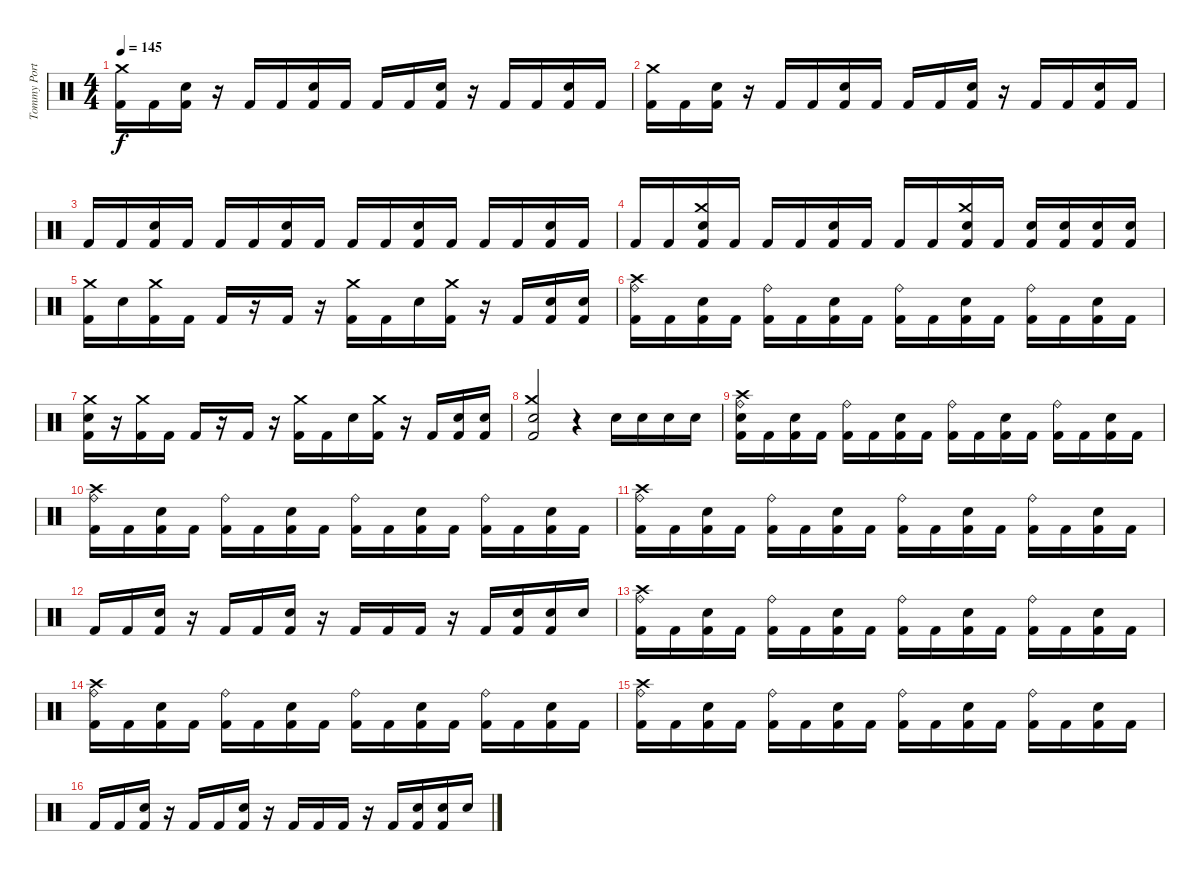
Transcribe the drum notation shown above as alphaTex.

\track ("Tommy Portino" "Tommy Port") {instrument percussion}
\staff {score}
\articulation defaults
\ts (4 4)
\tempo 145
\clef neutral
\ks c
("Kick (hit) 2" "Crash medium (hit)").16{dy f} "Kick (hit) 2".16 ("Kick (hit) 2" "Electric Snare (hit)").16 r.16 "Kick (hit) 2".16 "Kick (hit) 2".16 ("Kick (hit) 2" "Electric Snare (hit)").16 "Kick (hit) 2".16 "Kick (hit) 2".16 "Kick (hit) 2".16 ("Kick (hit) 2" "Electric Snare (hit)").16 r.16 "Kick (hit) 2".16 "Kick (hit) 2".16 ("Kick (hit) 2" "Electric Snare (hit)").16 "Kick (hit) 2".16 |
("Kick (hit) 2" "Crash medium (hit)").16 "Kick (hit) 2".16 ("Kick (hit) 2" "Electric Snare (hit)").16 r.16 "Kick (hit) 2".16 "Kick (hit) 2".16 ("Kick (hit) 2" "Electric Snare (hit)").16 "Kick (hit) 2".16 "Kick (hit) 2".16 "Kick (hit) 2".16 ("Kick (hit) 2" "Electric Snare (hit)").16 r.16 "Kick (hit) 2".16 "Kick (hit) 2".16 ("Kick (hit) 2" "Electric Snare (hit)").16 "Kick (hit) 2".16 |
"Kick (hit) 2".16 "Kick (hit) 2".16 ("Kick (hit) 2" "Electric Snare (hit)").16 "Kick (hit) 2".16 "Kick (hit) 2".16 "Kick (hit) 2".16 ("Kick (hit) 2" "Electric Snare (hit)").16 "Kick (hit) 2".16 "Kick (hit) 2".16 "Kick (hit) 2".16 ("Kick (hit) 2" "Electric Snare (hit)").16 "Kick (hit) 2".16 "Kick (hit) 2".16 "Kick (hit) 2".16 ("Kick (hit) 2" "Electric Snare (hit)").16 "Kick (hit) 2".16 |
"Kick (hit) 2".16 "Kick (hit) 2".16 ("Kick (hit) 2" "Crash medium (hit)" "Electric Snare (hit)").16 "Kick (hit) 2".16 "Kick (hit) 2".16 "Kick (hit) 2".16 ("Kick (hit) 2" "Electric Snare (hit)").16 "Kick (hit) 2".16 "Kick (hit) 2".16 "Kick (hit) 2".16 ("Kick (hit) 2" "Crash medium (hit)" "Electric Snare (hit)").16 "Kick (hit) 2".16 ("Kick (hit) 2" "Electric Snare (hit)").16 ("Kick (hit) 2" "Electric Snare (hit)").16 ("Kick (hit) 2" "Electric Snare (hit)").16 ("Kick (hit) 2" "Electric Snare (hit)").16 |
("Kick (hit) 2" "Crash medium (hit)").16 "Electric Snare (hit)".16 ("Kick (hit) 2" "Crash medium (hit)").16 "Kick (hit) 2".16 "Kick (hit) 2".16 r.16 "Kick (hit) 2".16 r.16 ("Kick (hit) 2" "Crash medium (hit)").16 "Kick (hit) 2".16 "Electric Snare (hit)".16 ("Kick (hit) 2" "Crash medium (hit)").16 r.16 "Kick (hit) 2".16 ("Kick (hit) 2" "Electric Snare (hit)").16 ("Kick (hit) 2" "Electric Snare (hit)").16 |
("Kick (hit) 2" "Ride (bell)" "Crash high (hit)").16 "Kick (hit) 2".16 ("Kick (hit) 2" "Electric Snare (hit)").16 "Kick (hit) 2".16 ("Kick (hit) 2" "Ride (bell)").16 "Kick (hit) 2".16 ("Kick (hit) 2" "Electric Snare (hit)").16 "Kick (hit) 2".16 ("Kick (hit) 2" "Ride (bell)").16 "Kick (hit) 2".16 ("Kick (hit) 2" "Electric Snare (hit)").16 "Kick (hit) 2".16 ("Kick (hit) 2" "Ride (bell)").16 "Kick (hit) 2".16 ("Kick (hit) 2" "Electric Snare (hit)").16 "Kick (hit) 2".16 |
("Kick (hit) 2" "Crash medium (hit)" "Electric Snare (hit)").16 r.16 ("Kick (hit) 2" "Crash medium (hit)").16 "Kick (hit) 2".16 "Kick (hit) 2".16 r.16 "Kick (hit) 2".16 r.16 ("Kick (hit) 2" "Crash medium (hit)").16 "Kick (hit) 2".16 "Electric Snare (hit)".16 ("Kick (hit) 2" "Crash medium (hit)").16 r.16 "Kick (hit) 2".16 ("Kick (hit) 2" "Electric Snare (hit)").16 ("Kick (hit) 2" "Electric Snare (hit)").16 |
("Electric Snare (hit)" "Crash medium (hit)" "Kick (hit) 2").2 r.4 "Electric Snare (hit)".16 "Electric Snare (hit)".16 "Electric Snare (hit)".16 "Electric Snare (hit)".16 |
("Kick (hit) 2" "Electric Snare (hit)" "Ride (bell)" "Crash high (hit)").16 "Kick (hit) 2".16 ("Kick (hit) 2" "Electric Snare (hit)").16 "Kick (hit) 2".16 ("Kick (hit) 2" "Ride (bell)").16 "Kick (hit) 2".16 ("Kick (hit) 2" "Electric Snare (hit)").16 "Kick (hit) 2".16 ("Kick (hit) 2" "Ride (bell)").16 "Kick (hit) 2".16 ("Kick (hit) 2" "Electric Snare (hit)").16 "Kick (hit) 2".16 ("Kick (hit) 2" "Ride (bell)").16 "Kick (hit) 2".16 ("Kick (hit) 2" "Electric Snare (hit)").16 "Kick (hit) 2".16 |
("Kick (hit) 2" "Ride (bell)" "Crash high (hit)").16 "Kick (hit) 2".16 ("Kick (hit) 2" "Electric Snare (hit)").16 "Kick (hit) 2".16 ("Kick (hit) 2" "Ride (bell)").16 "Kick (hit) 2".16 ("Kick (hit) 2" "Electric Snare (hit)").16 "Kick (hit) 2".16 ("Kick (hit) 2" "Ride (bell)").16 "Kick (hit) 2".16 ("Kick (hit) 2" "Electric Snare (hit)").16 "Kick (hit) 2".16 ("Kick (hit) 2" "Ride (bell)").16 "Kick (hit) 2".16 ("Kick (hit) 2" "Electric Snare (hit)").16 "Kick (hit) 2".16 |
("Kick (hit) 2" "Ride (bell)" "Crash high (hit)").16 "Kick (hit) 2".16 ("Kick (hit) 2" "Electric Snare (hit)").16 "Kick (hit) 2".16 ("Kick (hit) 2" "Ride (bell)").16 "Kick (hit) 2".16 ("Kick (hit) 2" "Electric Snare (hit)").16 "Kick (hit) 2".16 ("Kick (hit) 2" "Ride (bell)").16 "Kick (hit) 2".16 ("Kick (hit) 2" "Electric Snare (hit)").16 "Kick (hit) 2".16 ("Kick (hit) 2" "Ride (bell)").16 "Kick (hit) 2".16 ("Kick (hit) 2" "Electric Snare (hit)").16 "Kick (hit) 2".16 |
"Kick (hit) 2".16 "Kick (hit) 2".16 ("Kick (hit) 2" "Electric Snare (hit)").16 r.16 "Kick (hit) 2".16 "Kick (hit) 2".16 ("Kick (hit) 2" "Electric Snare (hit)").16 r.16 "Kick (hit) 2".16 "Kick (hit) 2".16 "Kick (hit) 2".16 r.16 "Kick (hit) 2".16 ("Kick (hit) 2" "Electric Snare (hit)").16 ("Kick (hit) 2" "Electric Snare (hit)").16 "Electric Snare (hit)".16 |
("Kick (hit) 2" "Ride (bell)" "Crash high (hit)").16 "Kick (hit) 2".16 ("Kick (hit) 2" "Electric Snare (hit)").16 "Kick (hit) 2".16 ("Kick (hit) 2" "Ride (bell)").16 "Kick (hit) 2".16 ("Kick (hit) 2" "Electric Snare (hit)").16 "Kick (hit) 2".16 ("Kick (hit) 2" "Ride (bell)").16 "Kick (hit) 2".16 ("Kick (hit) 2" "Electric Snare (hit)").16 "Kick (hit) 2".16 ("Kick (hit) 2" "Ride (bell)").16 "Kick (hit) 2".16 ("Kick (hit) 2" "Electric Snare (hit)").16 "Kick (hit) 2".16 |
("Kick (hit) 2" "Ride (bell)" "Crash high (hit)").16 "Kick (hit) 2".16 ("Kick (hit) 2" "Electric Snare (hit)").16 "Kick (hit) 2".16 ("Kick (hit) 2" "Ride (bell)").16 "Kick (hit) 2".16 ("Kick (hit) 2" "Electric Snare (hit)").16 "Kick (hit) 2".16 ("Kick (hit) 2" "Ride (bell)").16 "Kick (hit) 2".16 ("Kick (hit) 2" "Electric Snare (hit)").16 "Kick (hit) 2".16 ("Kick (hit) 2" "Ride (bell)").16 "Kick (hit) 2".16 ("Kick (hit) 2" "Electric Snare (hit)").16 "Kick (hit) 2".16 |
("Kick (hit) 2" "Ride (bell)" "Crash high (hit)").16 "Kick (hit) 2".16 ("Kick (hit) 2" "Electric Snare (hit)").16 "Kick (hit) 2".16 ("Kick (hit) 2" "Ride (bell)").16 "Kick (hit) 2".16 ("Kick (hit) 2" "Electric Snare (hit)").16 "Kick (hit) 2".16 ("Kick (hit) 2" "Ride (bell)").16 "Kick (hit) 2".16 ("Kick (hit) 2" "Electric Snare (hit)").16 "Kick (hit) 2".16 ("Kick (hit) 2" "Ride (bell)").16 "Kick (hit) 2".16 ("Kick (hit) 2" "Electric Snare (hit)").16 "Kick (hit) 2".16 |
"Kick (hit) 2".16 "Kick (hit) 2".16 ("Kick (hit) 2" "Electric Snare (hit)").16 r.16 "Kick (hit) 2".16 "Kick (hit) 2".16 ("Kick (hit) 2" "Electric Snare (hit)").16 r.16 "Kick (hit) 2".16 "Kick (hit) 2".16 "Kick (hit) 2".16 r.16 "Kick (hit) 2".16 ("Kick (hit) 2" "Electric Snare (hit)").16 ("Kick (hit) 2" "Electric Snare (hit)").16 "Electric Snare (hit)".16
